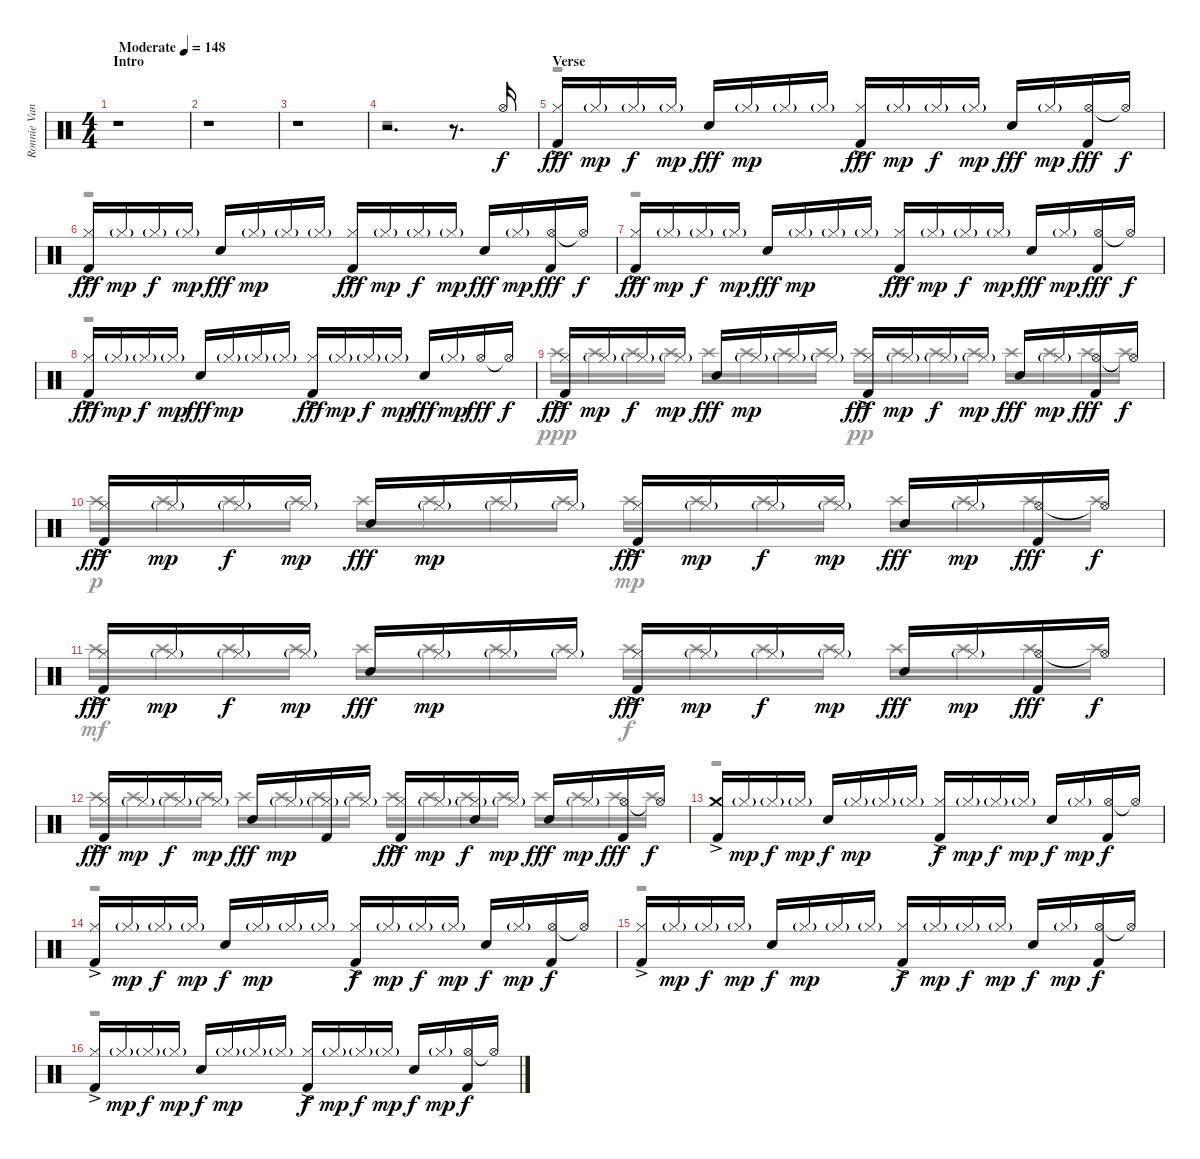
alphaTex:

\track ("Ronnie Vannucci Jr. - Drums" "Ronnie Van") {instrument percussion}
\staff {score}
\articulation defaults
\voice
\ts (4 4)
\section ("" "Intro")
\tempo (148 "Moderate")
\clef neutral
\ks c
r.1{dy f} |
r.1 |
r.1 |
r.2{d} r.8{d} "Hi-Hat (open)".16 |
\section ("" "Verse")
("Hi-Hat (closed)"{ac} "Kick (hit) 2").16{dy fff} "Hi-Hat (closed)"{g}.16{dy mp} "Hi-Hat (closed)"{g}.16{dy f} "Hi-Hat (closed)"{g}.16{dy mp} "Electric Snare (hit)".16{dy fff} "Hi-Hat (closed)"{g}.16{dy mp} "Hi-Hat (closed)"{g}.16 "Hi-Hat (closed)"{g}.16 ("Hi-Hat (closed)"{ac} "Kick (hit) 2"{ac}).16{dy fff} "Hi-Hat (closed)"{g}.16{dy mp} "Hi-Hat (closed)"{g}.16{dy f} "Hi-Hat (closed)"{g}.16{dy mp} "Electric Snare (hit)".16{dy fff} "Hi-Hat (closed)"{g}.16{dy mp} ("Hi-Hat (open)" "Kick (hit) 2").16{dy fff} "Hi-Hat (open)"{t}.16{dy f} |
("Hi-Hat (closed)"{ac} "Kick (hit) 2").16{dy fff} "Hi-Hat (closed)"{g}.16{dy mp} "Hi-Hat (closed)"{g}.16{dy f} "Hi-Hat (closed)"{g}.16{dy mp} "Electric Snare (hit)".16{dy fff} "Hi-Hat (closed)"{g}.16{dy mp} "Hi-Hat (closed)"{g}.16 "Hi-Hat (closed)"{g}.16 ("Hi-Hat (closed)"{ac} "Kick (hit) 2"{ac}).16{dy fff} "Hi-Hat (closed)"{g}.16{dy mp} "Hi-Hat (closed)"{g}.16{dy f} "Hi-Hat (closed)"{g}.16{dy mp} "Electric Snare (hit)".16{dy fff} "Hi-Hat (closed)"{g}.16{dy mp} ("Hi-Hat (open)" "Kick (hit) 2").16{dy fff} "Hi-Hat (open)"{t}.16{dy f} |
("Hi-Hat (closed)"{ac} "Kick (hit) 2").16{dy fff} "Hi-Hat (closed)"{g}.16{dy mp} "Hi-Hat (closed)"{g}.16{dy f} "Hi-Hat (closed)"{g}.16{dy mp} "Electric Snare (hit)".16{dy fff} "Hi-Hat (closed)"{g}.16{dy mp} "Hi-Hat (closed)"{g}.16 "Hi-Hat (closed)"{g}.16 ("Hi-Hat (closed)"{ac} "Kick (hit) 2"{ac}).16{dy fff} "Hi-Hat (closed)"{g}.16{dy mp} "Hi-Hat (closed)"{g}.16{dy f} "Hi-Hat (closed)"{g}.16{dy mp} "Electric Snare (hit)".16{dy fff} "Hi-Hat (closed)"{g}.16{dy mp} ("Hi-Hat (open)" "Kick (hit) 2").16{dy fff} "Hi-Hat (open)"{t}.16{dy f} |
("Hi-Hat (closed)"{ac} "Kick (hit) 2").16{dy fff} "Hi-Hat (closed)"{g}.16{dy mp} "Hi-Hat (closed)"{g}.16{dy f} "Hi-Hat (closed)"{g}.16{dy mp} "Electric Snare (hit)".16{dy fff} "Hi-Hat (closed)"{g}.16{dy mp} "Hi-Hat (closed)"{g}.16 "Hi-Hat (closed)"{g}.16 ("Hi-Hat (closed)"{ac} "Kick (hit) 2"{ac}).16{dy fff} "Hi-Hat (closed)"{g}.16{dy mp} "Hi-Hat (closed)"{g}.16{dy f} "Hi-Hat (closed)"{g}.16{dy mp} "Electric Snare (hit)".16{dy fff} "Hi-Hat (closed)"{g}.16{dy mp} "Hi-Hat (open)".16{dy fff} "Hi-Hat (open)"{t}.16{dy f} |
("Hi-Hat (closed)"{ac} "Kick (hit) 2").16{dy fff} "Hi-Hat (closed)"{g}.16{dy mp} "Hi-Hat (closed)"{g}.16{dy f} "Hi-Hat (closed)"{g}.16{dy mp} "Electric Snare (hit)".16{dy fff} "Hi-Hat (closed)"{g}.16{dy mp} "Hi-Hat (closed)"{g}.16 "Hi-Hat (closed)"{g}.16 ("Hi-Hat (closed)"{ac} "Kick (hit) 2"{ac}).16{dy fff} "Hi-Hat (closed)"{g}.16{dy mp} "Hi-Hat (closed)"{g}.16{dy f} "Hi-Hat (closed)"{g}.16{dy mp} "Electric Snare (hit)".16{dy fff} "Hi-Hat (closed)"{g}.16{dy mp} ("Hi-Hat (open)" "Kick (hit) 2").16{dy fff} "Hi-Hat (open)"{t}.16{dy f} |
("Hi-Hat (closed)"{ac} "Kick (hit) 2").16{dy fff} "Hi-Hat (closed)"{g}.16{dy mp} "Hi-Hat (closed)"{g}.16{dy f} "Hi-Hat (closed)"{g}.16{dy mp} "Electric Snare (hit)".16{dy fff} "Hi-Hat (closed)"{g}.16{dy mp} "Hi-Hat (closed)"{g}.16 "Hi-Hat (closed)"{g}.16 ("Hi-Hat (closed)"{ac} "Kick (hit) 2"{ac}).16{dy fff} "Hi-Hat (closed)"{g}.16{dy mp} "Hi-Hat (closed)"{g}.16{dy f} "Hi-Hat (closed)"{g}.16{dy mp} "Electric Snare (hit)".16{dy fff} "Hi-Hat (closed)"{g}.16{dy mp} ("Hi-Hat (open)" "Kick (hit) 2").16{dy fff} "Hi-Hat (open)"{t}.16{dy f} |
("Hi-Hat (closed)"{ac} "Kick (hit) 2").16{dy fff} "Hi-Hat (closed)"{g}.16{dy mp} "Hi-Hat (closed)"{g}.16{dy f} "Hi-Hat (closed)"{g}.16{dy mp} "Electric Snare (hit)".16{dy fff} "Hi-Hat (closed)"{g}.16{dy mp} "Hi-Hat (closed)"{g}.16 "Hi-Hat (closed)"{g}.16 ("Hi-Hat (closed)"{ac} "Kick (hit) 2"{ac}).16{dy fff} "Hi-Hat (closed)"{g}.16{dy mp} "Hi-Hat (closed)"{g}.16{dy f} "Hi-Hat (closed)"{g}.16{dy mp} "Electric Snare (hit)".16{dy fff} "Hi-Hat (closed)"{g}.16{dy mp} ("Hi-Hat (open)" "Kick (hit) 2").16{dy fff} "Hi-Hat (open)"{t}.16{dy f} |
("Hi-Hat (closed)"{ac} "Kick (hit) 2").16{dy fff} "Hi-Hat (closed)"{g}.16{dy mp} "Hi-Hat (closed)"{g}.16{dy f} "Hi-Hat (closed)"{g}.16{dy mp} "Electric Snare (hit)".16{dy fff} "Hi-Hat (closed)"{g}.16{dy mp} ("Hi-Hat (closed)"{g} "Kick (hit) 2").16 "Hi-Hat (closed)"{g}.16 ("Hi-Hat (closed)"{ac} "Kick (hit) 2"{ac}).16{dy fff} "Hi-Hat (closed)"{g}.16{dy mp} ("Hi-Hat (closed)"{g} "Electric Snare (hit)").16{dy f} "Hi-Hat (closed)"{g}.16{dy mp} "Electric Snare (hit)".16{dy fff} "Hi-Hat (closed)"{g}.16{dy mp} ("Hi-Hat (open)" "Kick (hit) 2").16{dy fff} "Hi-Hat (open)"{t}.16{dy f} |
("Crash medium (hit)"{ac} "Kick (hit) 2").16 "Hi-Hat (closed)"{g}.16{dy mp} "Hi-Hat (closed)"{g}.16{dy f} "Hi-Hat (closed)"{g}.16{dy mp} "Electric Snare (hit)".16{dy f} "Hi-Hat (closed)"{g}.16{dy mp} "Hi-Hat (closed)"{g}.16 "Hi-Hat (closed)"{g}.16 ("Hi-Hat (closed)"{ac} "Kick (hit) 2"{ac}).16{dy f} "Hi-Hat (closed)"{g}.16{dy mp} "Hi-Hat (closed)"{g}.16{dy f} "Hi-Hat (closed)"{g}.16{dy mp} "Electric Snare (hit)".16{dy f} "Hi-Hat (closed)"{g}.16{dy mp} ("Hi-Hat (open)" "Kick (hit) 2").16{dy f} "Hi-Hat (open)"{t}.16 |
("Hi-Hat (closed)"{ac} "Kick (hit) 2").16 "Hi-Hat (closed)"{g}.16{dy mp} "Hi-Hat (closed)"{g}.16{dy f} "Hi-Hat (closed)"{g}.16{dy mp} "Electric Snare (hit)".16{dy f} "Hi-Hat (closed)"{g}.16{dy mp} "Hi-Hat (closed)"{g}.16 "Hi-Hat (closed)"{g}.16 ("Hi-Hat (closed)"{ac} "Kick (hit) 2"{ac}).16{dy f} "Hi-Hat (closed)"{g}.16{dy mp} "Hi-Hat (closed)"{g}.16{dy f} "Hi-Hat (closed)"{g}.16{dy mp} "Electric Snare (hit)".16{dy f} "Hi-Hat (closed)"{g}.16{dy mp} ("Hi-Hat (open)" "Kick (hit) 2").16{dy f} "Hi-Hat (open)"{t}.16 |
("Hi-Hat (closed)"{ac} "Kick (hit) 2").16 "Hi-Hat (closed)"{g}.16{dy mp} "Hi-Hat (closed)"{g}.16{dy f} "Hi-Hat (closed)"{g}.16{dy mp} "Electric Snare (hit)".16{dy f} "Hi-Hat (closed)"{g}.16{dy mp} "Hi-Hat (closed)"{g}.16 "Hi-Hat (closed)"{g}.16 ("Hi-Hat (closed)"{ac} "Kick (hit) 2"{ac}).16{dy f} "Hi-Hat (closed)"{g}.16{dy mp} "Hi-Hat (closed)"{g}.16{dy f} "Hi-Hat (closed)"{g}.16{dy mp} "Electric Snare (hit)".16{dy f} "Hi-Hat (closed)"{g}.16{dy mp} ("Hi-Hat (open)" "Kick (hit) 2").16{dy f} "Hi-Hat (open)"{t}.16 |
("Hi-Hat (closed)"{ac} "Kick (hit) 2").16 "Hi-Hat (closed)"{g}.16{dy mp} "Hi-Hat (closed)"{g}.16{dy f} "Hi-Hat (closed)"{g}.16{dy mp} "Electric Snare (hit)".16{dy f} "Hi-Hat (closed)"{g}.16{dy mp} "Hi-Hat (closed)"{g}.16 "Hi-Hat (closed)"{g}.16 ("Hi-Hat (closed)"{ac} "Kick (hit) 2"{ac}).16{dy f} "Hi-Hat (closed)"{g}.16{dy mp} "Hi-Hat (closed)"{g}.16{dy f} "Hi-Hat (closed)"{g}.16{dy mp} "Electric Snare (hit)".16{dy f} "Hi-Hat (closed)"{g}.16{dy mp} ("Hi-Hat (open)" "Kick (hit) 2").16{dy f} "Hi-Hat (open)"{t}.16
\voice
\clef neutral
\ottava regular
\simile none
\ks c
r.1{dy ppp} |
r.1 |
r.1 |
r.1 |
r.1 |
r.1 |
r.1 |
r.1 |
"Crash high (hit)".16 "Crash high (hit)".16 "Crash high (hit)".16 "Crash high (hit)".16 "Crash high (hit)".16 "Crash high (hit)".16 "Crash high (hit)".16 "Crash high (hit)".16 "Crash high (hit)".16{dy pp} "Crash high (hit)".16 "Crash high (hit)".16 "Crash high (hit)".16 "Crash high (hit)".16 "Crash high (hit)".16 "Crash high (hit)".16 "Crash high (hit)".16 |
"Crash high (hit)".16{dy p} "Crash high (hit)".16 "Crash high (hit)".16 "Crash high (hit)".16 "Crash high (hit)".16 "Crash high (hit)".16 "Crash high (hit)".16 "Crash high (hit)".16 "Crash high (hit)".16{dy mp} "Crash high (hit)".16 "Crash high (hit)".16 "Crash high (hit)".16 "Crash high (hit)".16 "Crash high (hit)".16 "Crash high (hit)".16 "Crash high (hit)".16 |
"Crash high (hit)".16{dy mf} "Crash high (hit)".16 "Crash high (hit)".16 "Crash high (hit)".16 "Crash high (hit)".16 "Crash high (hit)".16 "Crash high (hit)".16 "Crash high (hit)".16 "Crash high (hit)".16{dy f} "Crash high (hit)".16 "Crash high (hit)".16 "Crash high (hit)".16 "Crash high (hit)".16 "Crash high (hit)".16 "Crash high (hit)".16 "Crash high (hit)".16 |
"Crash high (hit)".16 "Crash high (hit)".16 "Crash high (hit)".16 "Crash high (hit)".16 "Crash high (hit)".16 "Crash high (hit)".16 "Crash high (hit)".16 "Crash high (hit)".16 "Crash high (hit)".16 "Crash high (hit)".16 "Crash high (hit)".16 "Crash high (hit)".16 "Crash high (hit)".16 "Crash high (hit)".16 "Crash high (hit)".16 "Crash high (hit)".16 |
r.1 |
r.1 |
r.1 |
r.1
